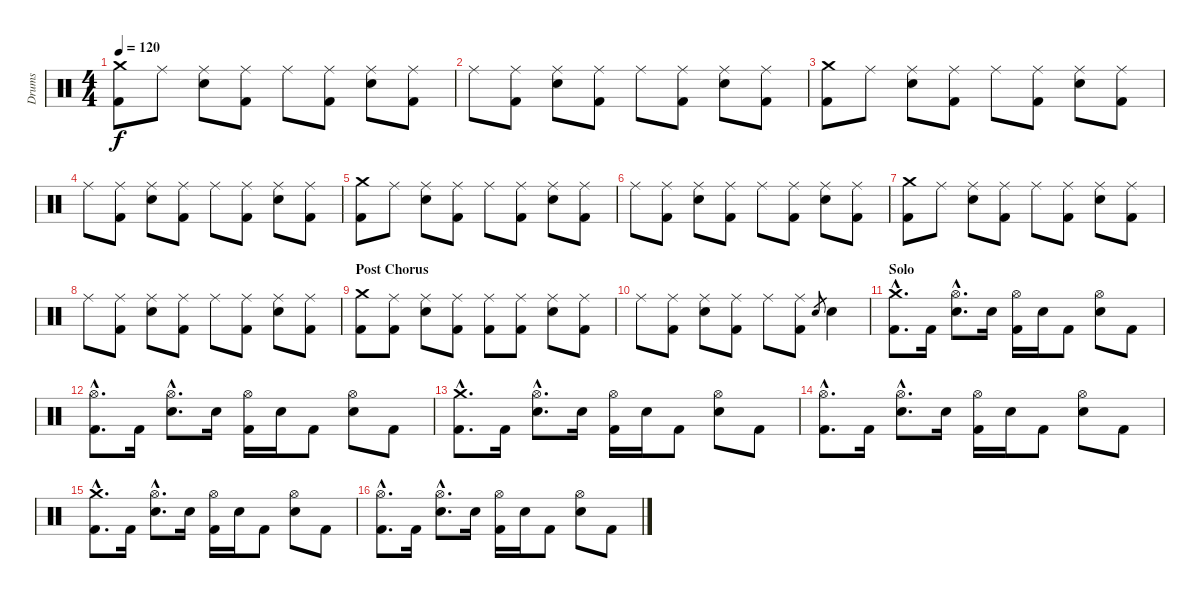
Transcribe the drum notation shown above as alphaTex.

\track ("Drums" "Drums") {instrument percussion}
\staff {score}
\articulation defaults
\ts (4 4)
\tempo 120
\clef neutral
\ks c
("Crash medium (hit)" "Kick (hit) 2").8{dy f} "Ride (middle)".8 ("Ride (middle)" "Electric Snare (hit)").8 ("Ride (middle)" "Kick (hit) 2").8 "Ride (middle)".8 ("Ride (middle)" "Kick (hit) 2").8 ("Ride (middle)" "Electric Snare (hit)").8 ("Ride (middle)" "Kick (hit) 2").8 |
"Ride (middle)".8 ("Ride (middle)" "Kick (hit) 2").8 ("Ride (middle)" "Electric Snare (hit)").8 ("Ride (middle)" "Kick (hit) 2").8 "Ride (middle)".8 ("Ride (middle)" "Kick (hit) 2").8 ("Ride (middle)" "Electric Snare (hit)").8 ("Ride (middle)" "Kick (hit) 2").8 |
("Crash medium (hit)" "Kick (hit) 2").8 "Ride (middle)".8 ("Ride (middle)" "Electric Snare (hit)").8 ("Ride (middle)" "Kick (hit) 2").8 "Ride (middle)".8 ("Ride (middle)" "Kick (hit) 2").8 ("Ride (middle)" "Electric Snare (hit)").8 ("Ride (middle)" "Kick (hit) 2").8 |
"Ride (middle)".8 ("Ride (middle)" "Kick (hit) 2").8 ("Ride (middle)" "Electric Snare (hit)").8 ("Ride (middle)" "Kick (hit) 2").8 "Ride (middle)".8 ("Ride (middle)" "Kick (hit) 2").8 ("Ride (middle)" "Electric Snare (hit)").8 ("Ride (middle)" "Kick (hit) 2").8 |
("Crash medium (hit)" "Kick (hit) 2").8 "Ride (middle)".8 ("Ride (middle)" "Electric Snare (hit)").8 ("Ride (middle)" "Kick (hit) 2").8 "Ride (middle)".8 ("Ride (middle)" "Kick (hit) 2").8 ("Ride (middle)" "Electric Snare (hit)").8 ("Ride (middle)" "Kick (hit) 2").8 |
"Ride (middle)".8 ("Ride (middle)" "Kick (hit) 2").8 ("Ride (middle)" "Electric Snare (hit)").8 ("Ride (middle)" "Kick (hit) 2").8 "Ride (middle)".8 ("Ride (middle)" "Kick (hit) 2").8 ("Ride (middle)" "Electric Snare (hit)").8 ("Ride (middle)" "Kick (hit) 2").8 |
("Crash medium (hit)" "Kick (hit) 2").8 "Ride (middle)".8 ("Ride (middle)" "Electric Snare (hit)").8 ("Ride (middle)" "Kick (hit) 2").8 "Ride (middle)".8 ("Ride (middle)" "Kick (hit) 2").8 ("Ride (middle)" "Electric Snare (hit)").8 ("Ride (middle)" "Kick (hit) 2").8 |
"Ride (middle)".8 ("Ride (middle)" "Kick (hit) 2").8 ("Ride (middle)" "Electric Snare (hit)").8 ("Ride (middle)" "Kick (hit) 2").8 "Ride (middle)".8 ("Ride (middle)" "Kick (hit) 2").8 ("Ride (middle)" "Electric Snare (hit)").8 ("Ride (middle)" "Kick (hit) 2").8 |
\section ("" "Post Chorus")
("Crash medium (hit)" "Kick (hit) 2").8 ("Ride (middle)" "Kick (hit) 2").8 ("Ride (middle)" "Electric Snare (hit)").8 ("Ride (middle)" "Kick (hit) 2").8 ("Ride (middle)" "Kick (hit) 2").8 ("Ride (middle)" "Kick (hit) 2").8 ("Ride (middle)" "Electric Snare (hit)").8 ("Ride (middle)" "Kick (hit) 2").8 |
"Ride (middle)".8 ("Ride (middle)" "Kick (hit) 2").8 ("Ride (middle)" "Electric Snare (hit)").8 ("Ride (middle)" "Kick (hit) 2").8 "Ride (middle)".8 ("Ride (middle)" "Kick (hit) 2").8 "Electric Snare (hit)".8{gr} "Electric Snare (hit)".4 |
\section ("" "Solo")
("Crash medium (hit)"{hac} "Kick (hit) 2"{hac}).8{d} "Kick (hit) 2".16 ("Hi-Hat (open)"{hac} "Electric Snare (hit)"{hac}).8{d} "Electric Snare (hit)".16 ("Hi-Hat (open)" "Kick (hit) 2").16 "Electric Snare (hit)".16 "Kick (hit) 2".8 ("Hi-Hat (open)" "Electric Snare (hit)").8 "Kick (hit) 2".8 |
("Hi-Hat (open)"{hac} "Kick (hit) 2"{hac}).8{d} "Kick (hit) 2".16 ("Hi-Hat (open)"{hac} "Electric Snare (hit)"{hac}).8{d} "Electric Snare (hit)".16 ("Hi-Hat (open)" "Kick (hit) 2").16 "Electric Snare (hit)".16 "Kick (hit) 2".8 ("Hi-Hat (open)" "Electric Snare (hit)").8 "Kick (hit) 2".8 |
("Crash medium (hit)"{hac} "Kick (hit) 2"{hac}).8{d} "Kick (hit) 2".16 ("Hi-Hat (open)"{hac} "Electric Snare (hit)"{hac}).8{d} "Electric Snare (hit)".16 ("Hi-Hat (open)" "Kick (hit) 2").16 "Electric Snare (hit)".16 "Kick (hit) 2".8 ("Hi-Hat (open)" "Electric Snare (hit)").8 "Kick (hit) 2".8 |
("Hi-Hat (open)"{hac} "Kick (hit) 2"{hac}).8{d} "Kick (hit) 2".16 ("Hi-Hat (open)"{hac} "Electric Snare (hit)"{hac}).8{d} "Electric Snare (hit)".16 ("Hi-Hat (open)" "Kick (hit) 2").16 "Electric Snare (hit)".16 "Kick (hit) 2".8 ("Hi-Hat (open)" "Electric Snare (hit)").8 "Kick (hit) 2".8 |
("Crash medium (hit)"{hac} "Kick (hit) 2"{hac}).8{d} "Kick (hit) 2".16 ("Hi-Hat (open)"{hac} "Electric Snare (hit)"{hac}).8{d} "Electric Snare (hit)".16 ("Hi-Hat (open)" "Kick (hit) 2").16 "Electric Snare (hit)".16 "Kick (hit) 2".8 ("Hi-Hat (open)" "Electric Snare (hit)").8 "Kick (hit) 2".8 |
("Hi-Hat (open)"{hac} "Kick (hit) 2"{hac}).8{d} "Kick (hit) 2".16 ("Hi-Hat (open)"{hac} "Electric Snare (hit)"{hac}).8{d} "Electric Snare (hit)".16 ("Hi-Hat (open)" "Kick (hit) 2").16 "Electric Snare (hit)".16 "Kick (hit) 2".8 ("Hi-Hat (open)" "Electric Snare (hit)").8 "Kick (hit) 2".8
